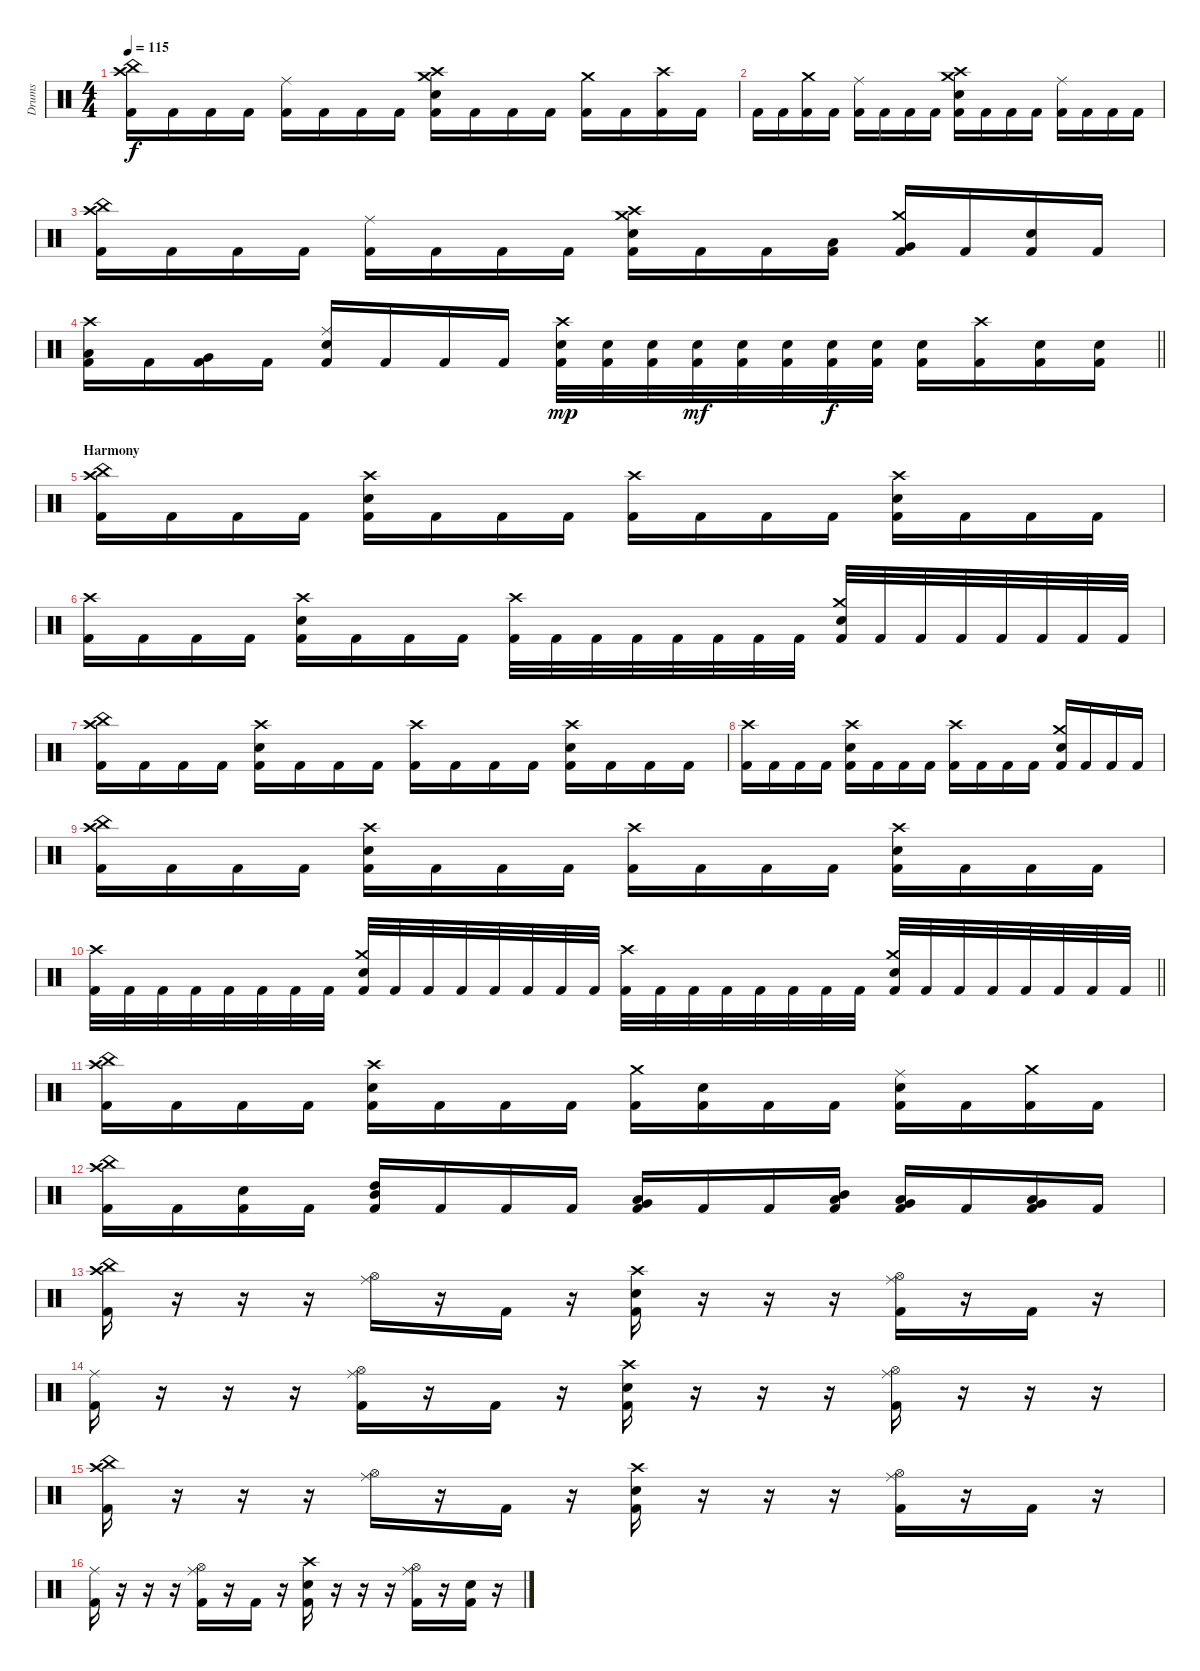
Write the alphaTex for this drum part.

\track ("Drums" "Drums") {instrument percussion}
\staff {score}
\articulation defaults
\ts (4 4)
\tempo 115
\clef neutral
\ks c
("China (hit)" "Crash high (hit)" "Kick (hit) 2").16{dy f} "Kick (hit) 2".16 "Kick (hit) 2".16 "Kick (hit) 2".16 ("Ride (middle)" "Kick (hit) 2").16 "Kick (hit) 2".16 "Kick (hit) 2".16 "Kick (hit) 2".16 ("Crash high (hit)" "Crash medium (hit)" "Electric Snare (hit)" "Kick (hit) 2").16 "Kick (hit) 2".16 "Kick (hit) 2".16 "Kick (hit) 2".16 ("Crash medium (hit)" "Kick (hit) 2").16 "Kick (hit) 2".16 ("Crash high (hit)" "Kick (hit) 2").16 "Kick (hit) 2".16 |
"Kick (hit) 2".16 "Kick (hit) 2".16 ("Crash medium (hit)" "Kick (hit) 2").16 "Kick (hit) 2".16 ("Ride (middle)" "Kick (hit) 2").16 "Kick (hit) 2".16 "Kick (hit) 2".16 "Kick (hit) 2".16 ("Crash high (hit)" "Crash medium (hit)" "Electric Snare (hit)" "Kick (hit) 2").16 "Kick (hit) 2".16 "Kick (hit) 2".16 "Kick (hit) 2".16 ("Ride (middle)" "Kick (hit) 2").16 "Kick (hit) 2".16 "Kick (hit) 2".16 "Kick (hit) 2".16 |
("China (hit)" "Crash high (hit)" "Kick (hit) 2").16 "Kick (hit) 2".16 "Kick (hit) 2".16 "Kick (hit) 2".16 ("Ride (middle)" "Kick (hit) 2").16 "Kick (hit) 2".16 "Kick (hit) 2".16 "Kick (hit) 2".16 ("Crash high (hit)" "Crash medium (hit)" "Electric Snare (hit)" "Kick (hit) 2").16 "Kick (hit) 2".16 "Kick (hit) 2".16 ("Low Tom (hit)" "Kick (hit) 2").16 ("Crash medium (hit)" "Very Low Tom (hit)" "Kick (hit) 2").16 "Kick (hit) 2".16 ("Electric Snare (hit)" "Kick (hit) 2").16 "Kick (hit) 2".16 |
\barLineRight lightlight
("Crash high (hit)" "Low Tom (hit)" "Kick (hit) 2").16 "Kick (hit) 2".16 ("Very Low Tom (hit)" "Kick (hit) 2").16 "Kick (hit) 2".16 ("Ride (middle)" "Electric Snare (hit)" "Kick (hit) 2").16 "Kick (hit) 2".16 "Kick (hit) 2".16 "Kick (hit) 2".16 ("Crash high (hit)" "Electric Snare (hit)" "Kick (hit) 2").32{dy mp} ("Electric Snare (hit)" "Kick (hit) 2").32 ("Electric Snare (hit)" "Kick (hit) 2").32 ("Electric Snare (hit)" "Kick (hit) 2").32{dy mf} ("Electric Snare (hit)" "Kick (hit) 2").32 ("Electric Snare (hit)" "Kick (hit) 2").32 ("Electric Snare (hit)" "Kick (hit) 2").32{dy f} ("Electric Snare (hit)" "Kick (hit) 2").32 ("Electric Snare (hit)" "Kick (hit) 2").16 ("Crash high (hit)" "Kick (hit) 2").16 ("Electric Snare (hit)" "Kick (hit) 2").16 ("Electric Snare (hit)" "Kick (hit) 2").16 |
\section ("" "Harmony")
("China (hit)" "Crash high (hit)" "Kick (hit) 2").16 "Kick (hit) 2".16 "Kick (hit) 2".16 "Kick (hit) 2".16 ("Crash high (hit)" "Electric Snare (hit)" "Kick (hit) 2").16 "Kick (hit) 2".16 "Kick (hit) 2".16 "Kick (hit) 2".16 ("Crash high (hit)" "Kick (hit) 2").16 "Kick (hit) 2".16 "Kick (hit) 2".16 "Kick (hit) 2".16 ("Crash high (hit)" "Electric Snare (hit)" "Kick (hit) 2").16 "Kick (hit) 2".16 "Kick (hit) 2".16 "Kick (hit) 2".16 |
("Crash high (hit)" "Kick (hit) 2").16 "Kick (hit) 2".16 "Kick (hit) 2".16 "Kick (hit) 2".16 ("Crash high (hit)" "Electric Snare (hit)" "Kick (hit) 2").16 "Kick (hit) 2".16 "Kick (hit) 2".16 "Kick (hit) 2".16 ("Crash high (hit)" "Kick (hit) 2").32 "Kick (hit) 2".32 "Kick (hit) 2".32 "Kick (hit) 2".32 "Kick (hit) 2".32 "Kick (hit) 2".32 "Kick (hit) 2".32 "Kick (hit) 2".32 ("Crash medium (hit)" "Electric Snare (hit)" "Kick (hit) 2").32 "Kick (hit) 2".32 "Kick (hit) 2".32 "Kick (hit) 2".32 "Kick (hit) 2".32 "Kick (hit) 2".32 "Kick (hit) 2".32 "Kick (hit) 2".32 |
("China (hit)" "Crash high (hit)" "Kick (hit) 2").16 "Kick (hit) 2".16 "Kick (hit) 2".16 "Kick (hit) 2".16 ("Crash high (hit)" "Electric Snare (hit)" "Kick (hit) 2").16 "Kick (hit) 2".16 "Kick (hit) 2".16 "Kick (hit) 2".16 ("Crash high (hit)" "Kick (hit) 2").16 "Kick (hit) 2".16 "Kick (hit) 2".16 "Kick (hit) 2".16 ("Crash high (hit)" "Electric Snare (hit)" "Kick (hit) 2").16 "Kick (hit) 2".16 "Kick (hit) 2".16 "Kick (hit) 2".16 |
("Crash high (hit)" "Kick (hit) 2").16 "Kick (hit) 2".16 "Kick (hit) 2".16 "Kick (hit) 2".16 ("Crash high (hit)" "Electric Snare (hit)" "Kick (hit) 2").16 "Kick (hit) 2".16 "Kick (hit) 2".16 "Kick (hit) 2".16 ("Crash high (hit)" "Kick (hit) 2").16 "Kick (hit) 2".16 "Kick (hit) 2".16 "Kick (hit) 2".16 ("Crash medium (hit)" "Electric Snare (hit)" "Kick (hit) 2").16 "Kick (hit) 2".16 "Kick (hit) 2".16 "Kick (hit) 2".16 |
("China (hit)" "Crash high (hit)" "Kick (hit) 2").16 "Kick (hit) 2".16 "Kick (hit) 2".16 "Kick (hit) 2".16 ("Crash high (hit)" "Electric Snare (hit)" "Kick (hit) 2").16 "Kick (hit) 2".16 "Kick (hit) 2".16 "Kick (hit) 2".16 ("Crash high (hit)" "Kick (hit) 2").16 "Kick (hit) 2".16 "Kick (hit) 2".16 "Kick (hit) 2".16 ("Crash high (hit)" "Electric Snare (hit)" "Kick (hit) 2").16 "Kick (hit) 2".16 "Kick (hit) 2".16 "Kick (hit) 2".16 |
\barLineRight lightlight
("Crash high (hit)" "Kick (hit) 2").32 "Kick (hit) 2".32 "Kick (hit) 2".32 "Kick (hit) 2".32 "Kick (hit) 2".32 "Kick (hit) 2".32 "Kick (hit) 2".32 "Kick (hit) 2".32 ("Crash medium (hit)" "Electric Snare (hit)" "Kick (hit) 2").32 "Kick (hit) 2".32 "Kick (hit) 2".32 "Kick (hit) 2".32 "Kick (hit) 2".32 "Kick (hit) 2".32 "Kick (hit) 2".32 "Kick (hit) 2".32 ("Crash high (hit)" "Kick (hit) 2").32 "Kick (hit) 2".32 "Kick (hit) 2".32 "Kick (hit) 2".32 "Kick (hit) 2".32 "Kick (hit) 2".32 "Kick (hit) 2".32 "Kick (hit) 2".32 ("Crash medium (hit)" "Electric Snare (hit)" "Kick (hit) 2").32 "Kick (hit) 2".32 "Kick (hit) 2".32 "Kick (hit) 2".32 "Kick (hit) 2".32 "Kick (hit) 2".32 "Kick (hit) 2".32 "Kick (hit) 2".32 |
("China (hit)" "Crash high (hit)" "Kick (hit) 2").16 "Kick (hit) 2".16 "Kick (hit) 2".16 "Kick (hit) 2".16 ("Crash high (hit)" "Electric Snare (hit)" "Kick (hit) 2").16 "Kick (hit) 2".16 "Kick (hit) 2".16 "Kick (hit) 2".16 ("Crash medium (hit)" "Kick (hit) 2").16 ("Electric Snare (hit)" "Kick (hit) 2").16 "Kick (hit) 2".16 "Kick (hit) 2".16 ("Ride (middle)" "Electric Snare (hit)" "Kick (hit) 2").16 "Kick (hit) 2".16 ("Crash medium (hit)" "Kick (hit) 2").16 "Kick (hit) 2".16 |
("China (hit)" "Crash high (hit)" "Kick (hit) 2").16 "Kick (hit) 2".16 ("Electric Snare (hit)" "Kick (hit) 2").16 "Kick (hit) 2".16 ("Mid Tom (hit)" "High Tom (hit)" "Kick (hit) 2").16 "Kick (hit) 2".16 "Kick (hit) 2".16 "Kick (hit) 2".16 ("Very Low Tom (hit)" "Low Tom (hit)" "Kick (hit) 2").16 "Kick (hit) 2".16 "Kick (hit) 2".16 ("Mid Tom (hit)" "Low Tom (hit)" "Kick (hit) 2").16 ("Low Tom (hit)" "Very Low Tom (hit)" "Kick (hit) 2").16 "Kick (hit) 2".16 ("Low Floor Tom (hit)" "Very Low Tom (hit)" "Kick (hit) 2").16 "Kick (hit) 2".16 |
("China (hit)" "Crash high (hit)" "Kick (hit) 2").16 r.16 r.16 r.16 ("Ride (middle)" "Hi-Hat (open)").16 r.16 "Kick (hit) 2".16 r.16 ("Crash high (hit)" "Electric Snare (hit)" "Kick (hit) 2").16 r.16 r.16 r.16 ("Ride (middle)" "Hi-Hat (open)" "Kick (hit) 2").16 r.16 "Kick (hit) 2".16 r.16 |
("Ride (middle)" "Kick (hit) 2").16 r.16 r.16 r.16 ("Ride (middle)" "Hi-Hat (open)" "Kick (hit) 2").16 r.16 "Kick (hit) 2".16 r.16 ("Crash high (hit)" "Electric Snare (hit)" "Kick (hit) 2").16 r.16 r.16 r.16 ("Ride (middle)" "Hi-Hat (open)" "Kick (hit) 2").16 r.16 r.16 r.16 |
("China (hit)" "Crash high (hit)" "Kick (hit) 2").16 r.16 r.16 r.16 ("Ride (middle)" "Hi-Hat (open)").16 r.16 "Kick (hit) 2".16 r.16 ("Crash high (hit)" "Electric Snare (hit)" "Kick (hit) 2").16 r.16 r.16 r.16 ("Ride (middle)" "Hi-Hat (open)" "Kick (hit) 2").16 r.16 "Kick (hit) 2".16 r.16 |
("Ride (middle)" "Kick (hit) 2").16 r.16 r.16 r.16 ("Ride (middle)" "Hi-Hat (open)" "Kick (hit) 2").16 r.16 "Kick (hit) 2".16 r.16 ("Crash high (hit)" "Electric Snare (hit)" "Kick (hit) 2").16 r.16 r.16 r.16 ("Ride (middle)" "Hi-Hat (open)" "Kick (hit) 2").16 r.16 ("Electric Snare (hit)" "Kick (hit) 2").16 r.16
